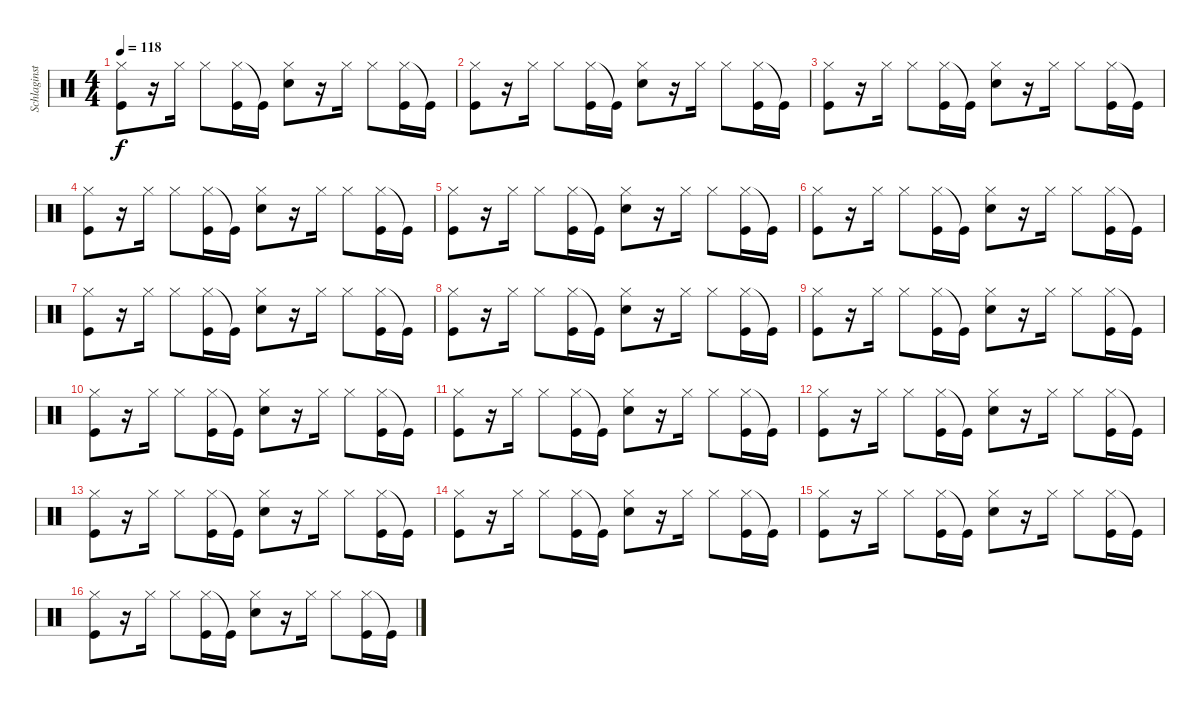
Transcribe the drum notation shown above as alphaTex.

\track ("Schlaginstrumente - Auswahl" "Schlaginst") {instrument percussion}
\staff {score}
\articulation defaults
\ts (4 4)
\tempo 118
\clef neutral
\ks c
("Hi-Hat (closed)" "Kick (hit)").8{dy f} r.16 "Hi-Hat (closed)".16 "Hi-Hat (closed)".8 ("Hi-Hat (closed)" "Kick (hit)").16 "Kick (hit)"{t}.16 ("Hi-Hat (closed)" "Hand Clap (hit)").8 r.16 "Hi-Hat (closed)".16 "Hi-Hat (closed)".8 ("Hi-Hat (closed)" "Kick (hit)").16 "Kick (hit)"{t}.16 |
("Hi-Hat (closed)" "Kick (hit)").8 r.16 "Hi-Hat (closed)".16 "Hi-Hat (closed)".8 ("Hi-Hat (closed)" "Kick (hit)").16 "Kick (hit)"{t}.16 ("Hi-Hat (closed)" "Hand Clap (hit)").8 r.16 "Hi-Hat (closed)".16 "Hi-Hat (closed)".8 ("Hi-Hat (closed)" "Kick (hit)").16 "Kick (hit)"{t}.16 |
("Kick (hit)" "Hi-Hat (closed)").8 r.16 "Hi-Hat (closed)".16 "Hi-Hat (closed)".8 ("Hi-Hat (closed)" "Kick (hit)").16 "Kick (hit)"{t}.16 ("Hi-Hat (closed)" "Hand Clap (hit)").8 r.16 "Hi-Hat (closed)".16 "Hi-Hat (closed)".8 ("Hi-Hat (closed)" "Kick (hit)").16 "Kick (hit)"{t}.16 |
("Hi-Hat (closed)" "Kick (hit)").8 r.16 "Hi-Hat (closed)".16 "Hi-Hat (closed)".8 ("Hi-Hat (closed)" "Kick (hit)").16 "Kick (hit)"{t}.16 ("Hi-Hat (closed)" "Hand Clap (hit)").8 r.16 "Hi-Hat (closed)".16 "Hi-Hat (closed)".8 ("Hi-Hat (closed)" "Kick (hit)").16 "Kick (hit)"{t}.16 |
("Kick (hit)" "Hi-Hat (closed)").8 r.16 "Hi-Hat (closed)".16 "Hi-Hat (closed)".8 ("Hi-Hat (closed)" "Kick (hit)").16 "Kick (hit)"{t}.16 ("Hi-Hat (closed)" "Hand Clap (hit)").8 r.16 "Hi-Hat (closed)".16 "Hi-Hat (closed)".8 ("Hi-Hat (closed)" "Kick (hit)").16 "Kick (hit)"{t}.16 |
("Hi-Hat (closed)" "Kick (hit)").8 r.16 "Hi-Hat (closed)".16 "Hi-Hat (closed)".8 ("Hi-Hat (closed)" "Kick (hit)").16 "Kick (hit)"{t}.16 ("Hi-Hat (closed)" "Hand Clap (hit)").8 r.16 "Hi-Hat (closed)".16 "Hi-Hat (closed)".8 ("Hi-Hat (closed)" "Kick (hit)").16 "Kick (hit)"{t}.16 |
("Kick (hit)" "Hi-Hat (closed)").8 r.16 "Hi-Hat (closed)".16 "Hi-Hat (closed)".8 ("Hi-Hat (closed)" "Kick (hit)").16 "Kick (hit)"{t}.16 ("Hi-Hat (closed)" "Hand Clap (hit)").8 r.16 "Hi-Hat (closed)".16 "Hi-Hat (closed)".8 ("Hi-Hat (closed)" "Kick (hit)").16 "Kick (hit)"{t}.16 |
("Kick (hit)" "Hi-Hat (closed)").8 r.16 "Hi-Hat (closed)".16 "Hi-Hat (closed)".8 ("Hi-Hat (closed)" "Kick (hit)").16 "Kick (hit)"{t}.16 ("Hi-Hat (closed)" "Hand Clap (hit)").8 r.16 "Hi-Hat (closed)".16 "Hi-Hat (closed)".8 ("Hi-Hat (closed)" "Kick (hit)").16 "Kick (hit)"{t}.16 |
("Hi-Hat (closed)" "Kick (hit)").8 r.16 "Hi-Hat (closed)".16 "Hi-Hat (closed)".8 ("Hi-Hat (closed)" "Kick (hit)").16 "Kick (hit)"{t}.16 ("Hi-Hat (closed)" "Hand Clap (hit)").8 r.16 "Hi-Hat (closed)".16 "Hi-Hat (closed)".8 ("Hi-Hat (closed)" "Kick (hit)").16 "Kick (hit)"{t}.16 |
("Hi-Hat (closed)" "Kick (hit)").8 r.16 "Hi-Hat (closed)".16 "Hi-Hat (closed)".8 ("Hi-Hat (closed)" "Kick (hit)").16 "Kick (hit)"{t}.16 ("Hi-Hat (closed)" "Hand Clap (hit)").8 r.16 "Hi-Hat (closed)".16 "Hi-Hat (closed)".8 ("Hi-Hat (closed)" "Kick (hit)").16 "Kick (hit)"{t}.16 |
("Kick (hit)" "Hi-Hat (closed)").8 r.16 "Hi-Hat (closed)".16 "Hi-Hat (closed)".8 ("Hi-Hat (closed)" "Kick (hit)").16 "Kick (hit)"{t}.16 ("Hi-Hat (closed)" "Hand Clap (hit)").8 r.16 "Hi-Hat (closed)".16 "Hi-Hat (closed)".8 ("Hi-Hat (closed)" "Kick (hit)").16 "Kick (hit)"{t}.16 |
("Hi-Hat (closed)" "Kick (hit)").8 r.16 "Hi-Hat (closed)".16 "Hi-Hat (closed)".8 ("Hi-Hat (closed)" "Kick (hit)").16 "Kick (hit)"{t}.16 ("Hi-Hat (closed)" "Hand Clap (hit)").8 r.16 "Hi-Hat (closed)".16 "Hi-Hat (closed)".8 ("Hi-Hat (closed)" "Kick (hit)").16 "Kick (hit)"{t}.16 |
("Kick (hit)" "Hi-Hat (closed)").8 r.16 "Hi-Hat (closed)".16 "Hi-Hat (closed)".8 ("Hi-Hat (closed)" "Kick (hit)").16 "Kick (hit)"{t}.16 ("Hi-Hat (closed)" "Hand Clap (hit)").8 r.16 "Hi-Hat (closed)".16 "Hi-Hat (closed)".8 ("Hi-Hat (closed)" "Kick (hit)").16 "Kick (hit)"{t}.16 |
("Hi-Hat (closed)" "Kick (hit)").8 r.16 "Hi-Hat (closed)".16 "Hi-Hat (closed)".8 ("Hi-Hat (closed)" "Kick (hit)").16 "Kick (hit)"{t}.16 ("Hi-Hat (closed)" "Hand Clap (hit)").8 r.16 "Hi-Hat (closed)".16 "Hi-Hat (closed)".8 ("Hi-Hat (closed)" "Kick (hit)").16 "Kick (hit)"{t}.16 |
("Kick (hit)" "Hi-Hat (closed)").8 r.16 "Hi-Hat (closed)".16 "Hi-Hat (closed)".8 ("Hi-Hat (closed)" "Kick (hit)").16 "Kick (hit)"{t}.16 ("Hi-Hat (closed)" "Hand Clap (hit)").8 r.16 "Hi-Hat (closed)".16 "Hi-Hat (closed)".8 ("Hi-Hat (closed)" "Kick (hit)").16 "Kick (hit)"{t}.16 |
("Hi-Hat (closed)" "Kick (hit)").8 r.16 "Hi-Hat (closed)".16 "Hi-Hat (closed)".8 ("Hi-Hat (closed)" "Kick (hit)").16 "Kick (hit)"{t}.16 ("Hi-Hat (closed)" "Hand Clap (hit)").8 r.16 "Hi-Hat (closed)".16 "Hi-Hat (closed)".8 ("Hi-Hat (closed)" "Kick (hit)").16 "Kick (hit)"{t}.16
